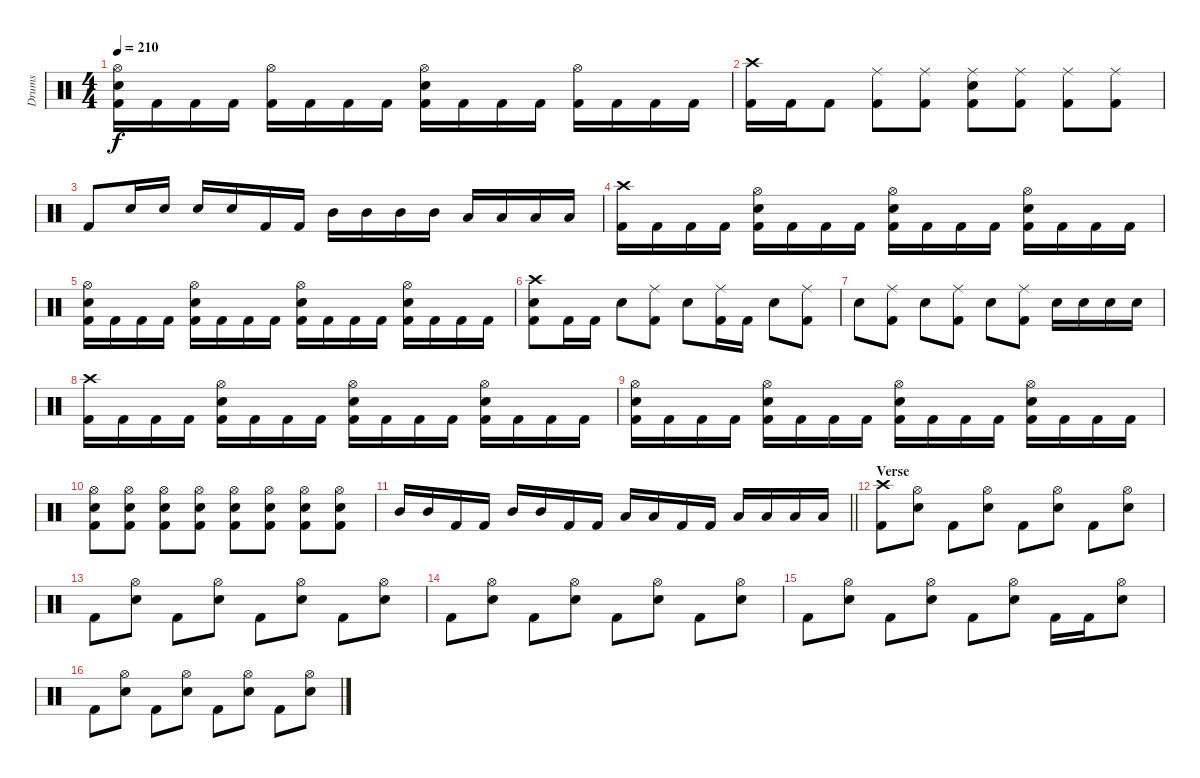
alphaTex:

\track ("Drums" "Drums") {instrument percussion}
\staff {score}
\articulation defaults
\ts (4 4)
\tempo 210
\clef neutral
\ks c
("Hi-Hat (open)" "Snare (hit) 2" "Kick (hit) 2").16{dy f} "Kick (hit) 2".16 "Kick (hit) 2".16 "Kick (hit) 2".16 ("Hi-Hat (open)" "Kick (hit) 2").16 "Kick (hit) 2".16 "Kick (hit) 2".16 "Kick (hit) 2".16 ("Hi-Hat (open)" "Snare (hit) 2" "Kick (hit) 2").16 "Kick (hit) 2".16 "Kick (hit) 2".16 "Kick (hit) 2".16 ("Hi-Hat (open)" "Kick (hit) 2").16 "Kick (hit) 2".16 "Kick (hit) 2".16 "Kick (hit) 2".16 |
("Crash high (hit)" "Kick (hit) 2").16 "Kick (hit) 2".16 "Kick (hit) 2".8 ("Ride (middle)" "Kick (hit) 2").8 ("Ride (middle)" "Kick (hit) 2").8 ("Ride (middle)" "Snare (hit) 2" "Kick (hit) 2").8 ("Ride (middle)" "Kick (hit) 2").8 ("Ride (middle)" "Kick (hit) 2").8 ("Ride (middle)" "Kick (hit) 2").8 |
"Kick (hit) 2".8 "Snare (hit) 2".16 "Snare (hit) 2".16 "Snare (hit) 2".16 "Snare (hit) 2".16 "Kick (hit) 2".16 "Kick (hit) 2".16 "Mid Tom (hit)".16 "Mid Tom (hit)".16 "Mid Tom (hit)".16 "Mid Tom (hit)".16 "Low Tom (hit)".16 "Low Tom (hit)".16 "Low Tom (hit)".16 "Low Tom (hit)".16 |
("Crash high (hit)" "Kick (hit) 2").16 "Kick (hit) 2".16 "Kick (hit) 2".16 "Kick (hit) 2".16 ("Hi-Hat (open)" "Snare (hit) 2" "Kick (hit) 2").16 "Kick (hit) 2".16 "Kick (hit) 2".16 "Kick (hit) 2".16 ("Hi-Hat (open)" "Snare (hit) 2" "Kick (hit) 2").16 "Kick (hit) 2".16 "Kick (hit) 2".16 "Kick (hit) 2".16 ("Hi-Hat (open)" "Snare (hit) 2" "Kick (hit) 2").16 "Kick (hit) 2".16 "Kick (hit) 2".16 "Kick (hit) 2".16 |
("Hi-Hat (open)" "Snare (hit) 2" "Kick (hit) 2").16 "Kick (hit) 2".16 "Kick (hit) 2".16 "Kick (hit) 2".16 ("Hi-Hat (open)" "Snare (hit) 2" "Kick (hit) 2").16 "Kick (hit) 2".16 "Kick (hit) 2".16 "Kick (hit) 2".16 ("Hi-Hat (open)" "Snare (hit) 2" "Kick (hit) 2").16 "Kick (hit) 2".16 "Kick (hit) 2".16 "Kick (hit) 2".16 ("Hi-Hat (open)" "Snare (hit) 2" "Kick (hit) 2").16 "Kick (hit) 2".16 "Kick (hit) 2".16 "Kick (hit) 2".16 |
("Crash high (hit)" "Snare (hit) 2" "Kick (hit) 2").8 "Kick (hit) 2".16 "Kick (hit) 2".16 "Snare (hit) 2".8 ("Ride (middle)" "Kick (hit) 2").8 "Snare (hit) 2".8 ("Ride (middle)" "Kick (hit) 2").16 "Kick (hit) 2".16 "Snare (hit) 2".8 ("Ride (middle)" "Kick (hit) 2").8 |
"Snare (hit) 2".8 ("Ride (middle)" "Kick (hit) 2").8 "Snare (hit) 2".8 ("Ride (middle)" "Kick (hit) 2").8 "Snare (hit) 2".8 ("Ride (middle)" "Kick (hit) 2").8 "Snare (hit) 2".16 "Snare (hit) 2".16 "Snare (hit) 2".16 "Snare (hit) 2".16 |
("Crash high (hit)" "Kick (hit) 2").16 "Kick (hit) 2".16 "Kick (hit) 2".16 "Kick (hit) 2".16 ("Hi-Hat (open)" "Snare (hit) 2" "Kick (hit) 2").16 "Kick (hit) 2".16 "Kick (hit) 2".16 "Kick (hit) 2".16 ("Hi-Hat (open)" "Snare (hit) 2" "Kick (hit) 2").16 "Kick (hit) 2".16 "Kick (hit) 2".16 "Kick (hit) 2".16 ("Hi-Hat (open)" "Snare (hit) 2" "Kick (hit) 2").16 "Kick (hit) 2".16 "Kick (hit) 2".16 "Kick (hit) 2".16 |
("Hi-Hat (open)" "Snare (hit) 2" "Kick (hit) 2").16 "Kick (hit) 2".16 "Kick (hit) 2".16 "Kick (hit) 2".16 ("Hi-Hat (open)" "Snare (hit) 2" "Kick (hit) 2").16 "Kick (hit) 2".16 "Kick (hit) 2".16 "Kick (hit) 2".16 ("Hi-Hat (open)" "Snare (hit) 2" "Kick (hit) 2").16 "Kick (hit) 2".16 "Kick (hit) 2".16 "Kick (hit) 2".16 ("Hi-Hat (open)" "Snare (hit) 2" "Kick (hit) 2").16 "Kick (hit) 2".16 "Kick (hit) 2".16 "Kick (hit) 2".16 |
("Hi-Hat (open)" "Snare (hit) 2" "Kick (hit) 2").8 ("Hi-Hat (open)" "Snare (hit) 2" "Kick (hit) 2").8 ("Hi-Hat (open)" "Snare (hit) 2" "Kick (hit) 2").8 ("Hi-Hat (open)" "Snare (hit) 2" "Kick (hit) 2").8 ("Hi-Hat (open)" "Snare (hit) 2" "Kick (hit) 2").8 ("Hi-Hat (open)" "Snare (hit) 2" "Kick (hit) 2").8 ("Hi-Hat (open)" "Snare (hit) 2" "Kick (hit) 2").8 ("Hi-Hat (open)" "Snare (hit) 2" "Kick (hit) 2").8 |
\barLineRight lightlight "Mid Tom (hit)".16 "Mid Tom (hit)".16 "Kick (hit) 2".16 "Kick (hit) 2".16 "Mid Tom (hit)".16 "Mid Tom (hit)".16 "Kick (hit) 2".16 "Kick (hit) 2".16 "Low Tom (hit)".16 "Low Tom (hit)".16 "Kick (hit) 2".16 "Kick (hit) 2".16 "Low Tom (hit)".16 "Low Tom (hit)".16 "Low Tom (hit)".16 "Low Tom (hit)".16
|
\section ("" "Verse")
("Crash high (hit)" "Kick (hit) 2").8 ("Hi-Hat (open)" "Snare (hit) 2").8 "Kick (hit) 2".8 ("Hi-Hat (open)" "Snare (hit) 2").8 "Kick (hit) 2".8 ("Hi-Hat (open)" "Snare (hit) 2").8 "Kick (hit) 2".8 ("Hi-Hat (open)" "Snare (hit) 2").8 |
"Kick (hit) 2".8 ("Hi-Hat (open)" "Snare (hit) 2").8 "Kick (hit) 2".8 ("Hi-Hat (open)" "Snare (hit) 2").8 "Kick (hit) 2".8 ("Hi-Hat (open)" "Snare (hit) 2").8 "Kick (hit) 2".8 ("Hi-Hat (open)" "Snare (hit) 2").8 |
"Kick (hit) 2".8 ("Hi-Hat (open)" "Snare (hit) 2").8 "Kick (hit) 2".8 ("Hi-Hat (open)" "Snare (hit) 2").8 "Kick (hit) 2".8 ("Hi-Hat (open)" "Snare (hit) 2").8 "Kick (hit) 2".8 ("Hi-Hat (open)" "Snare (hit) 2").8 |
"Kick (hit) 2".8 ("Hi-Hat (open)" "Snare (hit) 2").8 "Kick (hit) 2".8 ("Hi-Hat (open)" "Snare (hit) 2").8 "Kick (hit) 2".8 ("Hi-Hat (open)" "Snare (hit) 2").8 "Kick (hit) 2".16 "Kick (hit) 2".16 ("Hi-Hat (open)" "Snare (hit) 2").8 |
"Kick (hit) 2".8 ("Hi-Hat (open)" "Snare (hit) 2").8 "Kick (hit) 2".8 ("Hi-Hat (open)" "Snare (hit) 2").8 "Kick (hit) 2".8 ("Hi-Hat (open)" "Snare (hit) 2").8 "Kick (hit) 2".8 ("Hi-Hat (open)" "Snare (hit) 2").8
